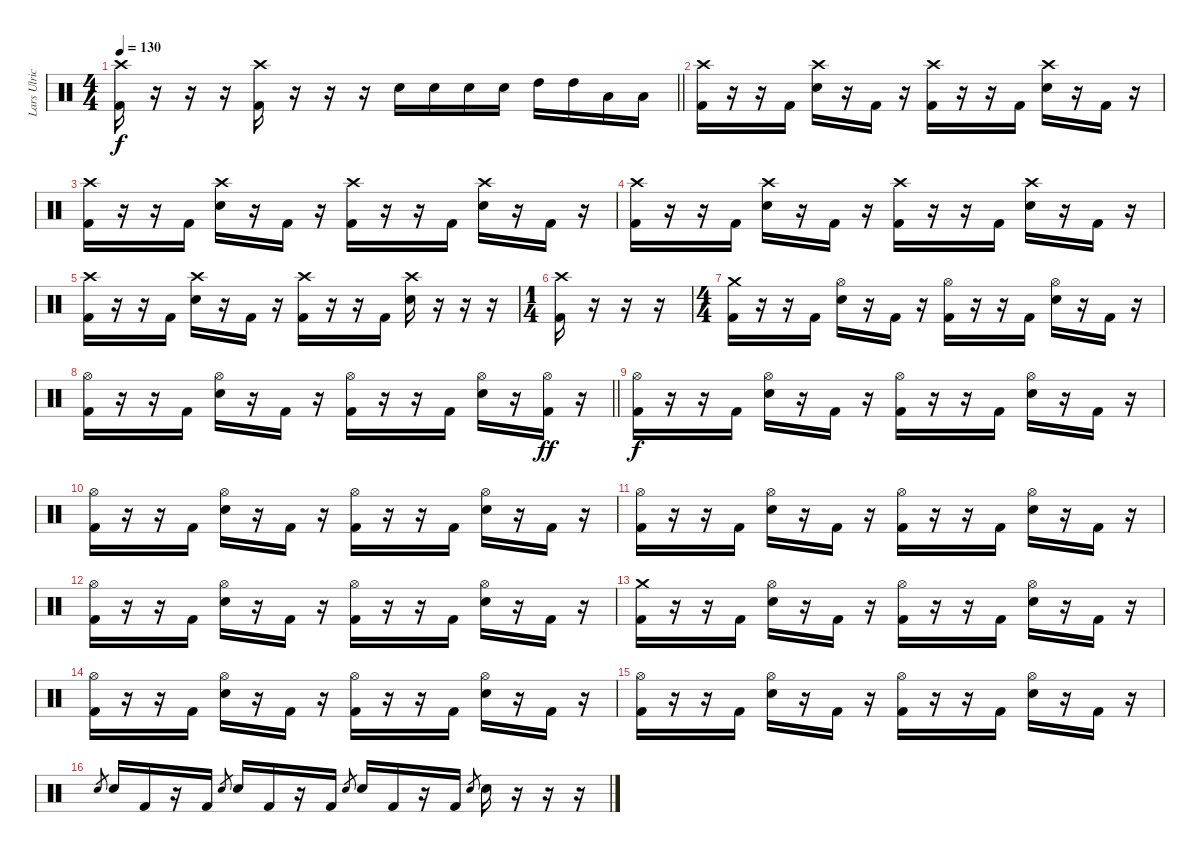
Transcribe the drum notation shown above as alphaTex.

\track ("Lars Ulrich" "Lars Ulric") {instrument percussion}
\staff {score}
\articulation defaults
\ts (4 4)
\tempo 130
\clef neutral
\barLineRight lightlight
\ks c
("Crash high (hit)" "Kick (hit) 2").16{dy f} r.16 r.16{volume 0} r.16 ("Crash high (hit)" "Kick (hit) 2").16{volume 16} r.16 r.16{volume 0} r.16 "Electric Snare (hit)".16{volume 16} "Electric Snare (hit)".16 "Electric Snare (hit)".16 "Electric Snare (hit)".16 "High Tom (hit)".16 "High Tom (hit)".16 "Low Tom (hit)".16 "Low Tom (hit)".16 |
\section ("" "")
("Crash high (hit)" "Kick (hit) 2").16 r.16 r.16 "Kick (hit) 2".16 ("Crash high (hit)" "Electric Snare (hit)").16 r.16 "Kick (hit) 2".16 r.16 ("Crash high (hit)" "Kick (hit) 2").16 r.16 r.16 "Kick (hit) 2".16 ("Crash high (hit)" "Electric Snare (hit)").16 r.16 "Kick (hit) 2".16 r.16 |
("Crash high (hit)" "Kick (hit) 2").16 r.16 r.16 "Kick (hit) 2".16 ("Crash high (hit)" "Electric Snare (hit)").16 r.16 "Kick (hit) 2".16 r.16 ("Crash high (hit)" "Kick (hit) 2").16 r.16 r.16 "Kick (hit) 2".16 ("Crash high (hit)" "Electric Snare (hit)").16 r.16 "Kick (hit) 2".16 r.16 |
("Crash high (hit)" "Kick (hit) 2").16 r.16 r.16 "Kick (hit) 2".16 ("Crash high (hit)" "Electric Snare (hit)").16 r.16 "Kick (hit) 2".16 r.16 ("Crash high (hit)" "Kick (hit) 2").16 r.16 r.16 "Kick (hit) 2".16 ("Crash high (hit)" "Electric Snare (hit)").16 r.16 "Kick (hit) 2".16 r.16 |
("Crash high (hit)" "Kick (hit) 2").16 r.16 r.16 "Kick (hit) 2".16 ("Crash high (hit)" "Electric Snare (hit)").16 r.16 "Kick (hit) 2".16 r.16 ("Crash high (hit)" "Kick (hit) 2").16 r.16 r.16 "Kick (hit) 2".16 ("Crash high (hit)" "Electric Snare (hit)").16 r.16 r.16 r.16 |
\ts (1 4)
("Crash high (hit)" "Kick (hit) 2").16 r.16 r.16 r.16 |
\ts (4 4)
("Crash medium (hit)" "Kick (hit) 2").16 r.16 r.16 "Kick (hit) 2".16 ("Electric Snare (hit)" "Hi-Hat (open)").16 r.16 "Kick (hit) 2".16 r.16 ("Hi-Hat (open)" "Kick (hit) 2").16 r.16 r.16 "Kick (hit) 2".16 ("Electric Snare (hit)" "Hi-Hat (open)").16 r.16 "Kick (hit) 2".16 r.16 |
\barLineRight lightlight
("Hi-Hat (open)" "Kick (hit) 2").16 r.16 r.16 "Kick (hit) 2".16 ("Electric Snare (hit)" "Hi-Hat (open)").16 r.16 "Kick (hit) 2".16 r.16 ("Hi-Hat (open)" "Kick (hit) 2").16 r.16 r.16 "Kick (hit) 2".16 ("Electric Snare (hit)" "Hi-Hat (open)").16 r.16 ("Hi-Hat (open)" "Kick (hit) 2").16{dy ff} r.16 |
\section ("" "")
("Hi-Hat (open)" "Kick (hit) 2").16{dy f} r.16 r.16 "Kick (hit) 2".16 ("Electric Snare (hit)" "Hi-Hat (open)").16 r.16 "Kick (hit) 2".16 r.16 ("Hi-Hat (open)" "Kick (hit) 2").16 r.16 r.16 "Kick (hit) 2".16 ("Electric Snare (hit)" "Hi-Hat (open)").16 r.16 "Kick (hit) 2".16 r.16 |
("Hi-Hat (open)" "Kick (hit) 2").16 r.16 r.16 "Kick (hit) 2".16 ("Electric Snare (hit)" "Hi-Hat (open)").16 r.16 "Kick (hit) 2".16 r.16 ("Hi-Hat (open)" "Kick (hit) 2").16 r.16 r.16 "Kick (hit) 2".16 ("Electric Snare (hit)" "Hi-Hat (open)").16 r.16 "Kick (hit) 2".16 r.16 |
("Hi-Hat (open)" "Kick (hit) 2").16 r.16 r.16 "Kick (hit) 2".16 ("Electric Snare (hit)" "Hi-Hat (open)").16 r.16 "Kick (hit) 2".16 r.16 ("Hi-Hat (open)" "Kick (hit) 2").16 r.16 r.16 "Kick (hit) 2".16 ("Electric Snare (hit)" "Hi-Hat (open)").16 r.16 "Kick (hit) 2".16 r.16 |
("Hi-Hat (open)" "Kick (hit) 2").16 r.16 r.16 "Kick (hit) 2".16 ("Electric Snare (hit)" "Hi-Hat (open)").16 r.16 "Kick (hit) 2".16 r.16 ("Hi-Hat (open)" "Kick (hit) 2").16 r.16 r.16 "Kick (hit) 2".16 ("Electric Snare (hit)" "Hi-Hat (open)").16 r.16 "Kick (hit) 2".16 r.16 |
("Crash medium (hit)" "Kick (hit) 2").16 r.16 r.16 "Kick (hit) 2".16 ("Electric Snare (hit)" "Hi-Hat (open)").16 r.16 "Kick (hit) 2".16 r.16 ("Hi-Hat (open)" "Kick (hit) 2").16 r.16 r.16 "Kick (hit) 2".16 ("Electric Snare (hit)" "Hi-Hat (open)").16 r.16 "Kick (hit) 2".16 r.16 |
("Hi-Hat (open)" "Kick (hit) 2").16 r.16 r.16 "Kick (hit) 2".16 ("Electric Snare (hit)" "Hi-Hat (open)").16 r.16 "Kick (hit) 2".16 r.16 ("Hi-Hat (open)" "Kick (hit) 2").16 r.16 r.16 "Kick (hit) 2".16 ("Electric Snare (hit)" "Hi-Hat (open)").16 r.16 "Kick (hit) 2".16 r.16 |
("Hi-Hat (open)" "Kick (hit) 2").16 r.16 r.16 "Kick (hit) 2".16 ("Electric Snare (hit)" "Hi-Hat (open)").16 r.16 "Kick (hit) 2".16 r.16 ("Hi-Hat (open)" "Kick (hit) 2").16 r.16 r.16 "Kick (hit) 2".16 ("Electric Snare (hit)" "Hi-Hat (open)").16 r.16 "Kick (hit) 2".16 r.16 |
"Electric Snare (hit)".8{gr} "Electric Snare (hit)".16 "Kick (hit) 2".16 r.16 "Kick (hit) 2".16 "Electric Snare (hit)".8{gr} "Electric Snare (hit)".16 "Kick (hit) 2".16 r.16 "Kick (hit) 2".16 "Electric Snare (hit)".8{gr} "Electric Snare (hit)".16 "Kick (hit) 2".16 r.16 "Kick (hit) 2".16 "Electric Snare (hit)".8{gr} "Electric Snare (hit)".16 r.16 r.16 r.16
